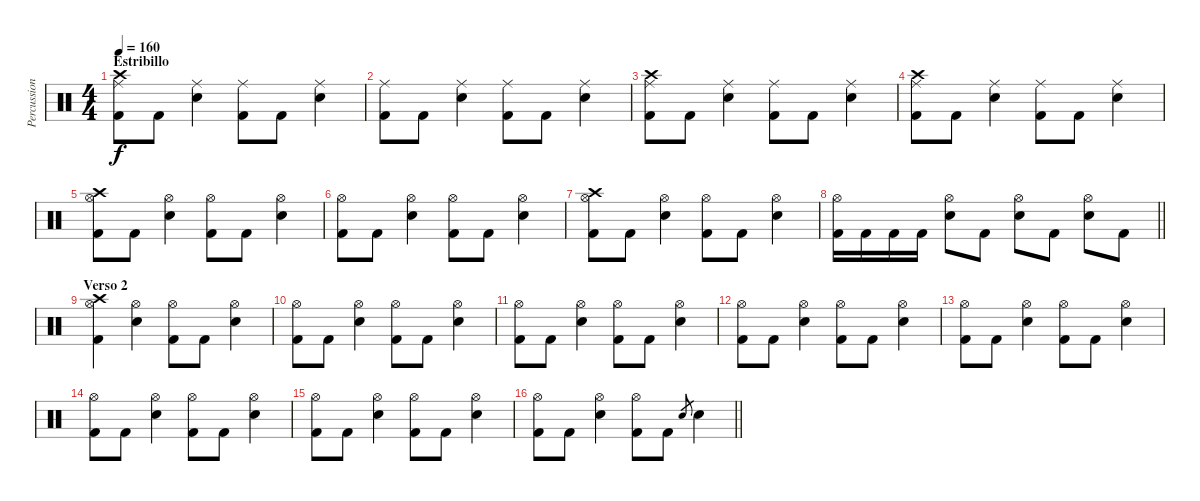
\track ("Percussion" "Percussion") {instrument percussion}
\staff {score}
\articulation defaults
\ts (4 4)
\section ("" "Estribillo")
\tempo 160
\clef neutral
\ks c
("Ride (middle)" "Crash high (hit)" "Kick (hit) 2").8{dy f} "Kick (hit) 2".8 ("Ride (middle)" "Snare (hit) 2").4 ("Ride (middle)" "Kick (hit) 2").8 "Kick (hit) 2".8 ("Ride (middle)" "Snare (hit) 2").4 |
("Ride (middle)" "Kick (hit) 2").8 "Kick (hit) 2".8 ("Ride (middle)" "Snare (hit) 2").4 ("Ride (middle)" "Kick (hit) 2").8 "Kick (hit) 2".8 ("Ride (middle)" "Snare (hit) 2").4 |
("Ride (middle)" "Crash high (hit)" "Kick (hit) 2").8 "Kick (hit) 2".8 ("Ride (middle)" "Snare (hit) 2").4 ("Ride (middle)" "Kick (hit) 2").8 "Kick (hit) 2".8 ("Ride (middle)" "Snare (hit) 2").4 |
("Ride (middle)" "Crash high (hit)" "Kick (hit) 2").8 "Kick (hit) 2".8 ("Ride (middle)" "Snare (hit) 2").4 ("Ride (middle)" "Kick (hit) 2").8 "Kick (hit) 2".8 ("Ride (middle)" "Snare (hit) 2").4 |
("Hi-Hat (open)" "Crash high (hit)" "Kick (hit) 2").8 "Kick (hit) 2".8 ("Hi-Hat (open)" "Snare (hit) 2").4 ("Hi-Hat (open)" "Kick (hit) 2").8 "Kick (hit) 2".8 ("Hi-Hat (open)" "Snare (hit) 2").4 |
("Hi-Hat (open)" "Kick (hit) 2").8 "Kick (hit) 2".8 ("Hi-Hat (open)" "Snare (hit) 2").4 ("Hi-Hat (open)" "Kick (hit) 2").8 "Kick (hit) 2".8 ("Hi-Hat (open)" "Snare (hit) 2").4 |
("Hi-Hat (open)" "Crash high (hit)" "Kick (hit) 2").8 "Kick (hit) 2".8 ("Hi-Hat (open)" "Snare (hit) 2").4 ("Hi-Hat (open)" "Kick (hit) 2").8 "Kick (hit) 2".8 ("Hi-Hat (open)" "Snare (hit) 2").4 |
\barLineRight lightlight
("Hi-Hat (open)" "Kick (hit) 2").16 "Kick (hit) 2".16 "Kick (hit) 2".16 "Kick (hit) 2".16 ("Hi-Hat (open)" "Snare (hit) 2").8 "Kick (hit) 2".8 ("Hi-Hat (open)" "Snare (hit) 2").8 "Kick (hit) 2".8 ("Hi-Hat (open)" "Snare (hit) 2").8 "Kick (hit) 2".8 |
\section ("" "Verso 2")
("Hi-Hat (open)" "Crash high (hit)" "Kick (hit) 2").4 ("Hi-Hat (open)" "Snare (hit) 2").4 ("Hi-Hat (open)" "Kick (hit) 2").8 "Kick (hit) 2".8 ("Hi-Hat (open)" "Snare (hit) 2").4 |
("Hi-Hat (open)" "Kick (hit) 2").8 "Kick (hit) 2".8 ("Hi-Hat (open)" "Snare (hit) 2").4 ("Hi-Hat (open)" "Kick (hit) 2").8 "Kick (hit) 2".8 ("Hi-Hat (open)" "Snare (hit) 2").4 |
("Hi-Hat (open)" "Kick (hit) 2").8 "Kick (hit) 2".8 ("Hi-Hat (open)" "Snare (hit) 2").4 ("Hi-Hat (open)" "Kick (hit) 2").8 "Kick (hit) 2".8 ("Hi-Hat (open)" "Snare (hit) 2").4 |
("Hi-Hat (open)" "Kick (hit) 2").8 "Kick (hit) 2".8 ("Hi-Hat (open)" "Snare (hit) 2").4 ("Hi-Hat (open)" "Kick (hit) 2").8 "Kick (hit) 2".8 ("Hi-Hat (open)" "Snare (hit) 2").4 |
("Hi-Hat (open)" "Kick (hit) 2").8 "Kick (hit) 2".8 ("Hi-Hat (open)" "Snare (hit) 2").4 ("Hi-Hat (open)" "Kick (hit) 2").8 "Kick (hit) 2".8 ("Hi-Hat (open)" "Snare (hit) 2").4 |
("Hi-Hat (open)" "Kick (hit) 2").8 "Kick (hit) 2".8 ("Hi-Hat (open)" "Snare (hit) 2").4 ("Hi-Hat (open)" "Kick (hit) 2").8 "Kick (hit) 2".8 ("Hi-Hat (open)" "Snare (hit) 2").4 |
("Hi-Hat (open)" "Kick (hit) 2").8 "Kick (hit) 2".8 ("Hi-Hat (open)" "Snare (hit) 2").4 ("Hi-Hat (open)" "Kick (hit) 2").8 "Kick (hit) 2".8 ("Hi-Hat (open)" "Snare (hit) 2").4 |
\barLineRight lightlight
("Hi-Hat (open)" "Kick (hit) 2").8 "Kick (hit) 2".8 ("Hi-Hat (open)" "Snare (hit) 2").4 ("Hi-Hat (open)" "Kick (hit) 2").8 "Kick (hit) 2".8 "Snare (hit) 2".8{gr} "Snare (hit) 2".4
